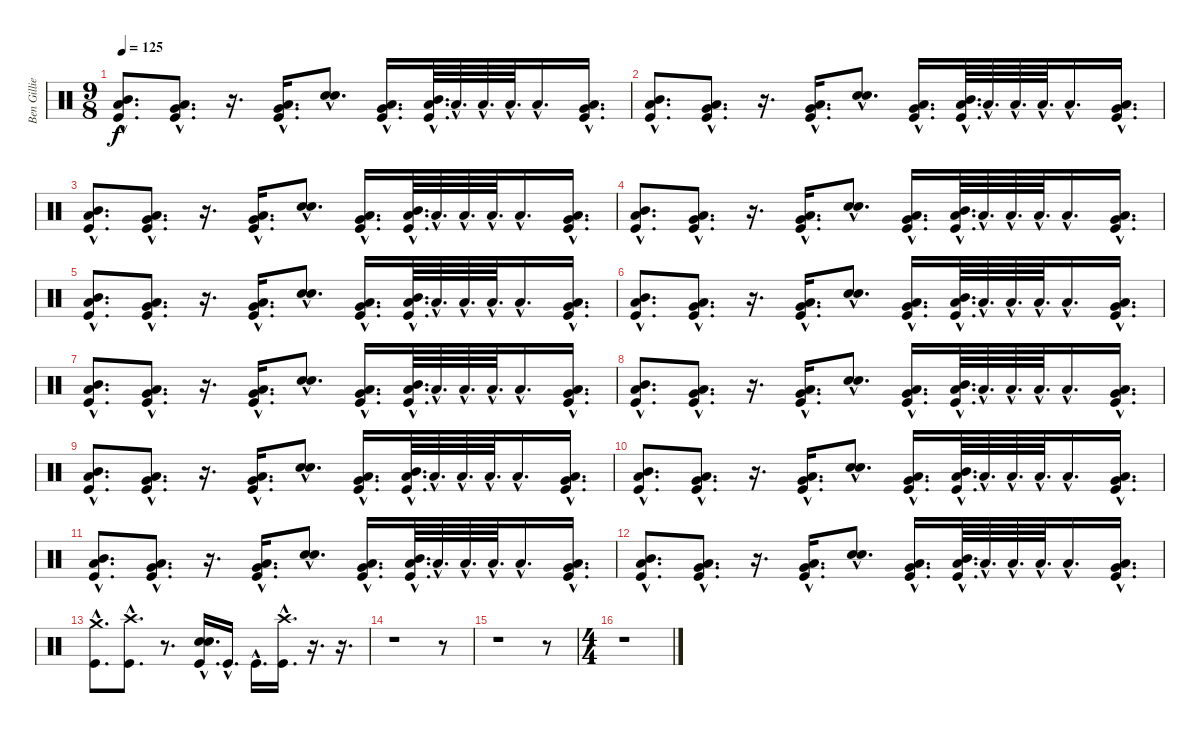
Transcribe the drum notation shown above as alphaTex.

\track ("Ben Gillies" "Ben Gillie") {instrument percussion}
\staff {score}
\articulation defaults
\ts (9 8)
\tempo 125
\clef neutral
\ks c
("Kick (hit)"{hac} "Low Tom (hit)"{hac} "Mid Tom (hit)"{hac}).8{d dy f} ("Kick (hit)"{hac} "Low Tom (hit)"{hac} "Very Low Tom (hit)"{hac}).8{d} r.16{d} ("Kick (hit)"{hac} "Low Tom (hit)"{hac} "Very Low Tom (hit)"{hac}).16{d} ("Snare (hit) 2"{hac} "Snare (hit) 2"{hac}).8{d bu 30} ("Kick (hit)"{hac} "Low Tom (hit)"{hac} "Very Low Tom (hit)"{hac}).16{d} ("Kick (hit)"{hac} "Low Tom (hit)"{hac} "Mid Tom (hit)"{hac}).64{d} "Low Floor Tom (hit)"{hac}.64{d} "Low Floor Tom (hit)"{hac}.64{d} "Low Floor Tom (hit)"{hac}.64{d} "Low Floor Tom (hit)"{hac}.16{d} ("Kick (hit)"{hac} "Very Low Tom (hit)"{hac} "Low Tom (hit)"{hac}).16{d} |
("Kick (hit)"{hac} "Low Tom (hit)"{hac} "Mid Tom (hit)"{hac}).8{d} ("Kick (hit)"{hac} "Low Tom (hit)"{hac} "Very Low Tom (hit)"{hac}).8{d} r.16{d} ("Kick (hit)"{hac} "Low Tom (hit)"{hac} "Very Low Tom (hit)"{hac}).16{d} ("Snare (hit) 2"{hac} "Snare (hit) 2"{hac}).8{d bu 30} ("Kick (hit)"{hac} "Low Tom (hit)"{hac} "Very Low Tom (hit)"{hac}).16{d} ("Kick (hit)"{hac} "Low Tom (hit)"{hac} "Mid Tom (hit)"{hac}).64{d} "Low Floor Tom (hit)"{hac}.64{d} "Low Floor Tom (hit)"{hac}.64{d} "Low Floor Tom (hit)"{hac}.64{d} "Low Floor Tom (hit)"{hac}.16{d} ("Kick (hit)"{hac} "Very Low Tom (hit)"{hac} "Low Tom (hit)"{hac}).16{d} |
("Kick (hit)"{hac} "Low Tom (hit)"{hac} "Mid Tom (hit)"{hac}).8{d} ("Kick (hit)"{hac} "Low Tom (hit)"{hac} "Very Low Tom (hit)"{hac}).8{d} r.16{d} ("Kick (hit)"{hac} "Low Tom (hit)"{hac} "Very Low Tom (hit)"{hac}).16{d} ("Snare (hit) 2"{hac} "Snare (hit) 2"{hac}).8{d bu 30} ("Kick (hit)"{hac} "Low Tom (hit)"{hac} "Very Low Tom (hit)"{hac}).16{d} ("Kick (hit)"{hac} "Low Tom (hit)"{hac} "Mid Tom (hit)"{hac}).64{d} "Low Floor Tom (hit)"{hac}.64{d} "Low Floor Tom (hit)"{hac}.64{d} "Low Floor Tom (hit)"{hac}.64{d} "Low Floor Tom (hit)"{hac}.16{d} ("Kick (hit)"{hac} "Very Low Tom (hit)"{hac} "Low Tom (hit)"{hac}).16{d} |
("Kick (hit)"{hac} "Low Tom (hit)"{hac} "Mid Tom (hit)"{hac}).8{d} ("Kick (hit)"{hac} "Low Tom (hit)"{hac} "Very Low Tom (hit)"{hac}).8{d} r.16{d} ("Kick (hit)"{hac} "Low Tom (hit)"{hac} "Very Low Tom (hit)"{hac}).16{d} ("Snare (hit) 2"{hac} "Snare (hit) 2"{hac}).8{d bu 30} ("Kick (hit)"{hac} "Low Tom (hit)"{hac} "Very Low Tom (hit)"{hac}).16{d} ("Kick (hit)"{hac} "Low Tom (hit)"{hac} "Mid Tom (hit)"{hac}).64{d} "Low Floor Tom (hit)"{hac}.64{d} "Low Floor Tom (hit)"{hac}.64{d} "Low Floor Tom (hit)"{hac}.64{d} "Low Floor Tom (hit)"{hac}.16{d} ("Kick (hit)"{hac} "Very Low Tom (hit)"{hac} "Low Tom (hit)"{hac}).16{d} |
("Kick (hit)"{hac} "Low Tom (hit)"{hac} "Mid Tom (hit)"{hac}).8{d} ("Kick (hit)"{hac} "Low Tom (hit)"{hac} "Very Low Tom (hit)"{hac}).8{d} r.16{d} ("Kick (hit)"{hac} "Low Tom (hit)"{hac} "Very Low Tom (hit)"{hac}).16{d} ("Snare (hit) 2"{hac} "Snare (hit) 2"{hac}).8{d bu 30} ("Kick (hit)"{hac} "Low Tom (hit)"{hac} "Very Low Tom (hit)"{hac}).16{d} ("Kick (hit)"{hac} "Low Tom (hit)"{hac} "Mid Tom (hit)"{hac}).64{d} "Low Floor Tom (hit)"{hac}.64{d} "Low Floor Tom (hit)"{hac}.64{d} "Low Floor Tom (hit)"{hac}.64{d} "Low Floor Tom (hit)"{hac}.16{d} ("Kick (hit)"{hac} "Very Low Tom (hit)"{hac} "Low Tom (hit)"{hac}).16{d} |
("Kick (hit)"{hac} "Low Tom (hit)"{hac} "Mid Tom (hit)"{hac}).8{d} ("Kick (hit)"{hac} "Low Tom (hit)"{hac} "Very Low Tom (hit)"{hac}).8{d} r.16{d} ("Kick (hit)"{hac} "Low Tom (hit)"{hac} "Very Low Tom (hit)"{hac}).16{d} ("Snare (hit) 2"{hac} "Snare (hit) 2"{hac}).8{d bu 30} ("Kick (hit)"{hac} "Low Tom (hit)"{hac} "Very Low Tom (hit)"{hac}).16{d} ("Kick (hit)"{hac} "Low Tom (hit)"{hac} "Mid Tom (hit)"{hac}).64{d} "Low Floor Tom (hit)"{hac}.64{d} "Low Floor Tom (hit)"{hac}.64{d} "Low Floor Tom (hit)"{hac}.64{d} "Low Floor Tom (hit)"{hac}.16{d} ("Kick (hit)"{hac} "Very Low Tom (hit)"{hac} "Low Tom (hit)"{hac}).16{d} |
("Kick (hit)"{hac} "Low Tom (hit)"{hac} "Mid Tom (hit)"{hac}).8{d} ("Kick (hit)"{hac} "Low Tom (hit)"{hac} "Very Low Tom (hit)"{hac}).8{d} r.16{d} ("Kick (hit)"{hac} "Low Tom (hit)"{hac} "Very Low Tom (hit)"{hac}).16{d} ("Snare (hit) 2"{hac} "Snare (hit) 2"{hac}).8{d bu 30} ("Kick (hit)"{hac} "Low Tom (hit)"{hac} "Very Low Tom (hit)"{hac}).16{d} ("Kick (hit)"{hac} "Low Tom (hit)"{hac} "Mid Tom (hit)"{hac}).64{d} "Low Floor Tom (hit)"{hac}.64{d} "Low Floor Tom (hit)"{hac}.64{d} "Low Floor Tom (hit)"{hac}.64{d} "Low Floor Tom (hit)"{hac}.16{d} ("Kick (hit)"{hac} "Very Low Tom (hit)"{hac} "Low Tom (hit)"{hac}).16{d} |
("Kick (hit)"{hac} "Low Tom (hit)"{hac} "Mid Tom (hit)"{hac}).8{d} ("Kick (hit)"{hac} "Low Tom (hit)"{hac} "Very Low Tom (hit)"{hac}).8{d} r.16{d} ("Kick (hit)"{hac} "Low Tom (hit)"{hac} "Very Low Tom (hit)"{hac}).16{d} ("Snare (hit) 2"{hac} "Snare (hit) 2"{hac}).8{d bu 30} ("Kick (hit)"{hac} "Low Tom (hit)"{hac} "Very Low Tom (hit)"{hac}).16{d} ("Kick (hit)"{hac} "Low Tom (hit)"{hac} "Mid Tom (hit)"{hac}).64{d} "Low Floor Tom (hit)"{hac}.64{d} "Low Floor Tom (hit)"{hac}.64{d} "Low Floor Tom (hit)"{hac}.64{d} "Low Floor Tom (hit)"{hac}.16{d} ("Kick (hit)"{hac} "Very Low Tom (hit)"{hac} "Low Tom (hit)"{hac}).16{d} |
("Kick (hit)"{hac} "Low Tom (hit)"{hac} "Mid Tom (hit)"{hac}).8{d} ("Kick (hit)"{hac} "Low Tom (hit)"{hac} "Very Low Tom (hit)"{hac}).8{d} r.16{d} ("Kick (hit)"{hac} "Low Tom (hit)"{hac} "Very Low Tom (hit)"{hac}).16{d} ("Snare (hit) 2"{hac} "Snare (hit) 2"{hac}).8{d bu 30} ("Kick (hit)"{hac} "Low Tom (hit)"{hac} "Very Low Tom (hit)"{hac}).16{d} ("Kick (hit)"{hac} "Low Tom (hit)"{hac} "Mid Tom (hit)"{hac}).64{d} "Low Floor Tom (hit)"{hac}.64{d} "Low Floor Tom (hit)"{hac}.64{d} "Low Floor Tom (hit)"{hac}.64{d} "Low Floor Tom (hit)"{hac}.16{d} ("Kick (hit)"{hac} "Very Low Tom (hit)"{hac} "Low Tom (hit)"{hac}).16{d} |
("Kick (hit)"{hac} "Low Tom (hit)"{hac} "Mid Tom (hit)"{hac}).8{d} ("Kick (hit)"{hac} "Low Tom (hit)"{hac} "Very Low Tom (hit)"{hac}).8{d} r.16{d} ("Kick (hit)"{hac} "Low Tom (hit)"{hac} "Very Low Tom (hit)"{hac}).16{d} ("Snare (hit) 2"{hac} "Snare (hit) 2"{hac}).8{d bu 30} ("Kick (hit)"{hac} "Low Tom (hit)"{hac} "Very Low Tom (hit)"{hac}).16{d} ("Kick (hit)"{hac} "Low Tom (hit)"{hac} "Mid Tom (hit)"{hac}).64{d} "Low Floor Tom (hit)"{hac}.64{d} "Low Floor Tom (hit)"{hac}.64{d} "Low Floor Tom (hit)"{hac}.64{d} "Low Floor Tom (hit)"{hac}.16{d} ("Kick (hit)"{hac} "Very Low Tom (hit)"{hac} "Low Tom (hit)"{hac}).16{d} |
("Kick (hit)"{hac} "Low Tom (hit)"{hac} "Mid Tom (hit)"{hac}).8{d} ("Kick (hit)"{hac} "Low Tom (hit)"{hac} "Very Low Tom (hit)"{hac}).8{d} r.16{d} ("Kick (hit)"{hac} "Low Tom (hit)"{hac} "Very Low Tom (hit)"{hac}).16{d} ("Snare (hit) 2"{hac} "Snare (hit) 2"{hac}).8{d bu 30} ("Kick (hit)"{hac} "Low Tom (hit)"{hac} "Very Low Tom (hit)"{hac}).16{d} ("Kick (hit)"{hac} "Low Tom (hit)"{hac} "Mid Tom (hit)"{hac}).64{d} "Low Floor Tom (hit)"{hac}.64{d} "Low Floor Tom (hit)"{hac}.64{d} "Low Floor Tom (hit)"{hac}.64{d} "Low Floor Tom (hit)"{hac}.16{d} ("Kick (hit)"{hac} "Very Low Tom (hit)"{hac} "Low Tom (hit)"{hac}).16{d} |
("Kick (hit)"{hac} "Low Tom (hit)"{hac} "Mid Tom (hit)"{hac}).8{d} ("Kick (hit)"{hac} "Low Tom (hit)"{hac} "Very Low Tom (hit)"{hac}).8{d} r.16{d} ("Kick (hit)"{hac} "Low Tom (hit)"{hac} "Very Low Tom (hit)"{hac}).16{d} ("Snare (hit) 2"{hac} "Snare (hit) 2"{hac}).8{d bu 30} ("Kick (hit)"{hac} "Low Tom (hit)"{hac} "Very Low Tom (hit)"{hac}).16{d} ("Kick (hit)"{hac} "Low Tom (hit)"{hac} "Mid Tom (hit)"{hac}).64{d} "Low Floor Tom (hit)"{hac}.64{d} "Low Floor Tom (hit)"{hac}.64{d} "Low Floor Tom (hit)"{hac}.64{d} "Low Floor Tom (hit)"{hac}.16{d} ("Kick (hit)"{hac} "Very Low Tom (hit)"{hac} "Low Tom (hit)"{hac}).16{d} |
("Kick (hit)"{hac} "Crash medium (hit)"{hac}).8{d} ("Kick (hit)"{hac} "Crash high (hit)"{hac}).8{d} r.8{d} ("Kick (hit)"{hac} "Snare (hit) 2"{hac} "Snare (hit) 2"{hac}).16{d bu 30} "Kick (hit)"{hac}.16{d} "Kick (hit)"{hac}.16{d} ("Kick (hit)"{hac} "Crash high (hit)"{hac}).16{d} r.16{d} r.16{d} |
r.1 r.8 |
r.1 r.8 |
\ts (4 4)
r.1
